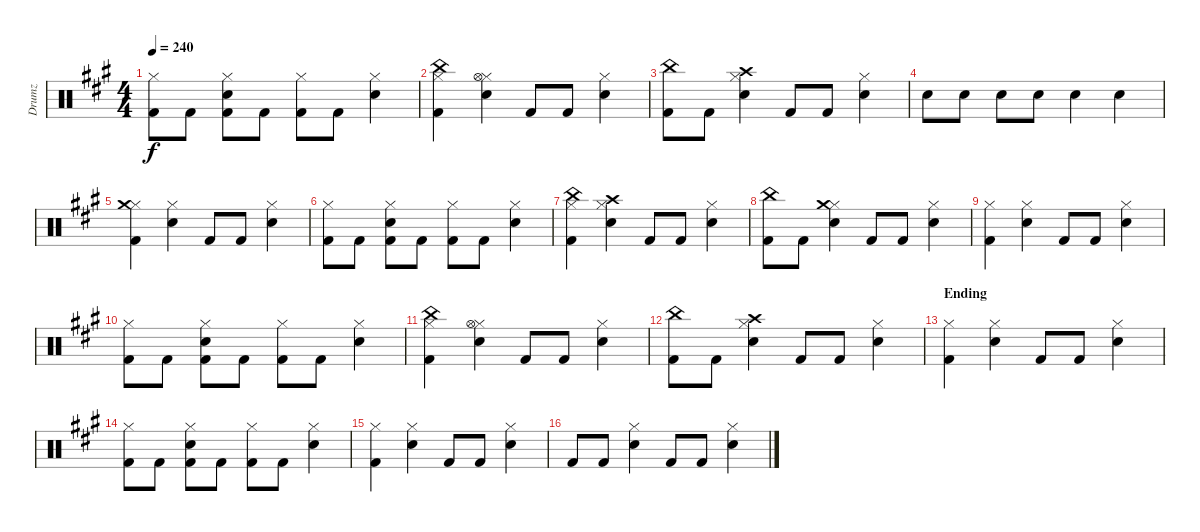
\track ("Drumz" "Drumz") {instrument percussion}
\staff {score}
\articulation defaults
\ts (4 4)
\tempo 240
\clef neutral
\ks a
("Hi-Hat (closed)" "Kick (hit) 2").8{dy f} "Kick (hit) 2".8 ("Hi-Hat (closed)" "Electric Snare (hit)" "Kick (hit) 2").8 "Kick (hit) 2".8 ("Hi-Hat (closed)" "Kick (hit) 2").8 "Kick (hit) 2".8 ("Hi-Hat (closed)" "Electric Snare (hit)").4 |
("Hi-Hat (closed)" "China (hit)" "Kick (hit) 2").4 ("Hi-Hat (closed)" "Hi-Hat (open)" "Electric Snare (hit)").4 "Kick (hit) 2".8 "Kick (hit) 2".8 ("Electric Snare (hit)" "Hi-Hat (closed)").4 |
("Kick (hit) 2" "China (hit)").8 "Kick (hit) 2".8 ("Hi-Hat (closed)" "Electric Snare (hit)" "Crash high (hit)").4 "Kick (hit) 2".8 "Kick (hit) 2".8 ("Electric Snare (hit)" "Hi-Hat (closed)").4 |
"Electric Snare (hit)".8 "Electric Snare (hit)".8 "Electric Snare (hit)".8 "Electric Snare (hit)".8 "Electric Snare (hit)".4 "Electric Snare (hit)".4 |
("Hi-Hat (closed)" "Crash medium (hit)" "Kick (hit) 2").4 ("Hi-Hat (closed)" "Electric Snare (hit)").4 "Kick (hit) 2".8 "Kick (hit) 2".8 ("Electric Snare (hit)" "Hi-Hat (closed)").4 |
("Hi-Hat (closed)" "Kick (hit) 2").8 "Kick (hit) 2".8 ("Hi-Hat (closed)" "Electric Snare (hit)" "Kick (hit) 2").8 "Kick (hit) 2".8 ("Hi-Hat (closed)" "Kick (hit) 2").8 "Kick (hit) 2".8 ("Hi-Hat (closed)" "Electric Snare (hit)").4 |
("Hi-Hat (closed)" "China (hit)" "Kick (hit) 2").4 ("Hi-Hat (closed)" "Crash high (hit)" "Electric Snare (hit)").4 "Kick (hit) 2".8 "Kick (hit) 2".8 ("Electric Snare (hit)" "Hi-Hat (closed)").4 |
("Kick (hit) 2" "China (hit)").8 "Kick (hit) 2".8 ("Hi-Hat (closed)" "Electric Snare (hit)" "Crash medium (hit)").4 "Kick (hit) 2".8 "Kick (hit) 2".8 ("Electric Snare (hit)" "Hi-Hat (closed)").4 |
("Hi-Hat (closed)" "Kick (hit) 2").4 ("Hi-Hat (closed)" "Electric Snare (hit)").4 "Kick (hit) 2".8 "Kick (hit) 2".8 ("Electric Snare (hit)" "Hi-Hat (closed)").4 |
("Hi-Hat (closed)" "Kick (hit) 2").8 "Kick (hit) 2".8 ("Hi-Hat (closed)" "Electric Snare (hit)" "Kick (hit) 2").8 "Kick (hit) 2".8 ("Hi-Hat (closed)" "Kick (hit) 2").8 "Kick (hit) 2".8 ("Hi-Hat (closed)" "Electric Snare (hit)").4 |
("Hi-Hat (closed)" "China (hit)" "Kick (hit) 2").4 ("Hi-Hat (closed)" "Hi-Hat (open)" "Electric Snare (hit)").4 "Kick (hit) 2".8 "Kick (hit) 2".8 ("Electric Snare (hit)" "Hi-Hat (closed)").4 |
("Kick (hit) 2" "China (hit)").8 "Kick (hit) 2".8 ("Hi-Hat (closed)" "Electric Snare (hit)" "Crash high (hit)").4 "Kick (hit) 2".8 "Kick (hit) 2".8 ("Electric Snare (hit)" "Hi-Hat (closed)").4 |
\section ("" "Ending")
("Hi-Hat (closed)" "Kick (hit) 2").4 ("Hi-Hat (closed)" "Electric Snare (hit)").4 "Kick (hit) 2".8 "Kick (hit) 2".8 ("Electric Snare (hit)" "Hi-Hat (closed)").4 |
("Hi-Hat (closed)" "Kick (hit) 2").8 "Kick (hit) 2".8 ("Hi-Hat (closed)" "Electric Snare (hit)" "Kick (hit) 2").8 "Kick (hit) 2".8 ("Hi-Hat (closed)" "Kick (hit) 2").8 "Kick (hit) 2".8 ("Hi-Hat (closed)" "Electric Snare (hit)").4 |
("Hi-Hat (closed)" "Kick (hit) 2").4 ("Hi-Hat (closed)" "Electric Snare (hit)").4 "Kick (hit) 2".8 "Kick (hit) 2".8 ("Electric Snare (hit)" "Hi-Hat (closed)").4 |
"Kick (hit) 2".8 "Kick (hit) 2".8 ("Hi-Hat (closed)" "Electric Snare (hit)").4 "Kick (hit) 2".8 "Kick (hit) 2".8 ("Electric Snare (hit)" "Hi-Hat (closed)").4
